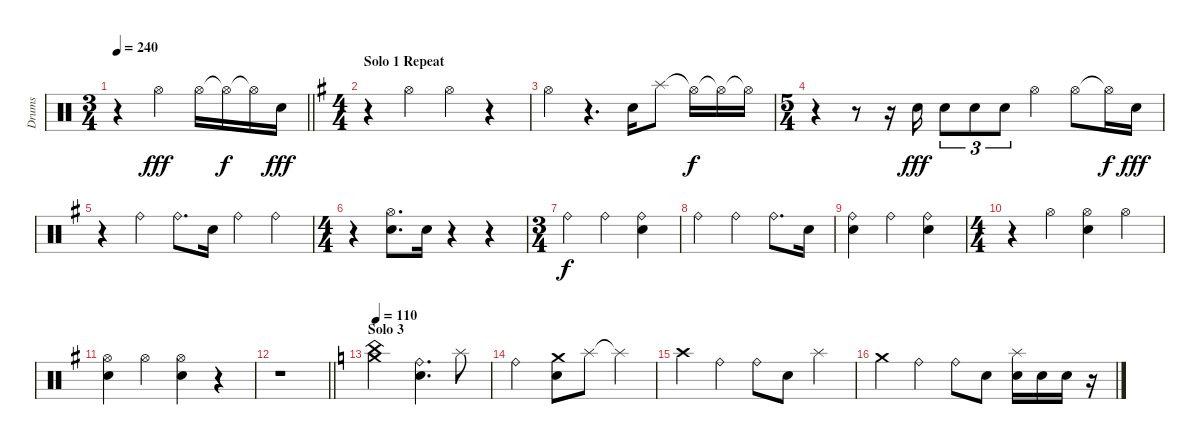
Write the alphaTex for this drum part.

\track ("Drums" "Drums") {instrument percussion}
\staff {score}
\articulation defaults
\ts (3 4)
\tempo 240
\clef neutral
\barLineRight lightlight
\ks c
r.4{dy f} "Hi-Hat (open)".4{dy fff} "Hi-Hat (open)".16 "Hi-Hat (open)"{t}.16{dy f} "Hi-Hat (open)"{t}.16 "Electric Snare (hit)".16{dy fff} |
\ts (4 4)
\section ("" "Solo 1 Repeat")
\ks g
r.4 "Hi-Hat (open)".4 "Hi-Hat (open)".4 r.4 |
"Hi-Hat (open)".4 r.4{d} "Electric Snare (hit)".16 "Splash (hit)".8 "Hi-Hat (open)"{t}.16{dy f} "Hi-Hat (open)"{t}.16 "Hi-Hat (open)"{t}.16 |
\ts (5 4)
r.4 r.8 r.16 "Electric Snare (hit)".16{dy fff} "Electric Snare (hit)".8{tu (3 2)} "Electric Snare (hit)".8{tu (3 2)} "Electric Snare (hit)".8{tu (3 2)} "Hi-Hat (open)".4 "Hi-Hat (open)".8 "Hi-Hat (open)"{t}.16{dy f} "Electric Snare (hit)".16{dy fff} |
r.4 "Ride (bell)".4 "Ride (bell)".8{d} "Electric Snare (hit)".16 "Ride (bell)".4 "Ride (bell)".4 |
\ts (4 4)
r.4 ("Hi-Hat (open)" "Electric Snare (hit)").8{d} "Electric Snare (hit)".16 r.4 r.4 |
\ts (3 4)
"Ride (bell)".4{dy f} "Ride (bell)".4 ("Ride (bell)" "Electric Snare (hit)").4 |
"Ride (bell)".4 "Ride (bell)".4 "Ride (bell)".8{d} "Electric Snare (hit)".16 |
("Ride (bell)" "Electric Snare (hit)").4 "Ride (bell)".4 ("Ride (bell)" "Electric Snare (hit)").4 |
\ts (4 4)
r.4 "Hi-Hat (open)".4 ("Hi-Hat (open)" "Electric Snare (hit)").4 "Hi-Hat (open)".4 |
("Hi-Hat (open)" "Electric Snare (hit)").4 "Hi-Hat (open)".4 ("Hi-Hat (open)" "Electric Snare (hit)").4 r.4 |
\barLineRight lightlight
r.1 |
\section ("" "Solo 3")
\tempo 110
\ks c
("China (hit)" "Crash medium (hit)").2{volume 16} ("Ride (bell)" "Electric Snare (hit)").4{d} "Splash (hit)".8 |
"Ride (bell)".2 ("Crash medium (hit)" "Electric Snare (hit)").8 "Splash (hit)".8 "Splash (hit)"{t}.4 |
"Crash high (hit)".4 "Ride (bell)".4 "Ride (bell)".8 "Electric Snare (hit)".8 "Splash (hit)".4 |
"Crash medium (hit)".4 "Ride (bell)".4 "Ride (bell)".8 "Electric Snare (hit)".8 ("Splash (hit)" "Electric Snare (hit)").16 "Electric Snare (hit)".16 "Electric Snare (hit)".16 r.16
